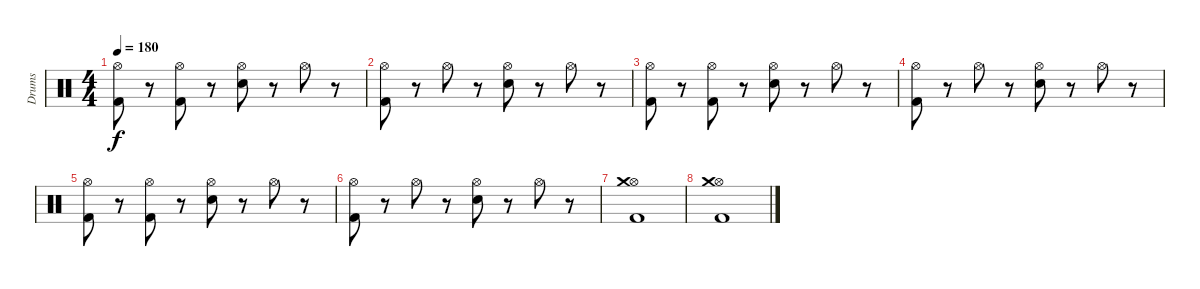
\track ("Drums" "Drums") {instrument percussion}
\staff {score}
\articulation defaults
\ts (4 4)
\tempo 180
\clef neutral
\ks c
("Hi-Hat (open)" "Kick (hit) 2").8{dy f} r.8 ("Hi-Hat (open)" "Kick (hit) 2").8 r.8 ("Hi-Hat (open)" "Electric Snare (hit)").8 r.8 "Hi-Hat (open)".8 r.8 |
("Hi-Hat (open)" "Kick (hit) 2").8 r.8 "Hi-Hat (open)".8 r.8 ("Hi-Hat (open)" "Electric Snare (hit)").8 r.8 "Hi-Hat (open)".8 r.8 |
("Hi-Hat (open)" "Kick (hit) 2").8 r.8 ("Hi-Hat (open)" "Kick (hit) 2").8 r.8 ("Hi-Hat (open)" "Electric Snare (hit)").8 r.8 "Hi-Hat (open)".8 r.8 |
("Hi-Hat (open)" "Kick (hit) 2").8 r.8 "Hi-Hat (open)".8 r.8 ("Hi-Hat (open)" "Electric Snare (hit)").8 r.8 "Hi-Hat (open)".8 r.8 |
("Hi-Hat (open)" "Kick (hit) 2").8 r.8 ("Hi-Hat (open)" "Kick (hit) 2").8 r.8 ("Hi-Hat (open)" "Electric Snare (hit)").8 r.8 "Hi-Hat (open)".8 r.8 |
("Hi-Hat (open)" "Kick (hit) 2").8 r.8 "Hi-Hat (open)".8 r.8 ("Hi-Hat (open)" "Electric Snare (hit)").8 r.8 "Hi-Hat (open)".8 r.8 |
("Kick (hit) 2" "Hi-Hat (open)" "Crash medium (hit)").1 |
("Kick (hit) 2" "Hi-Hat (open)" "Crash medium (hit)").1
